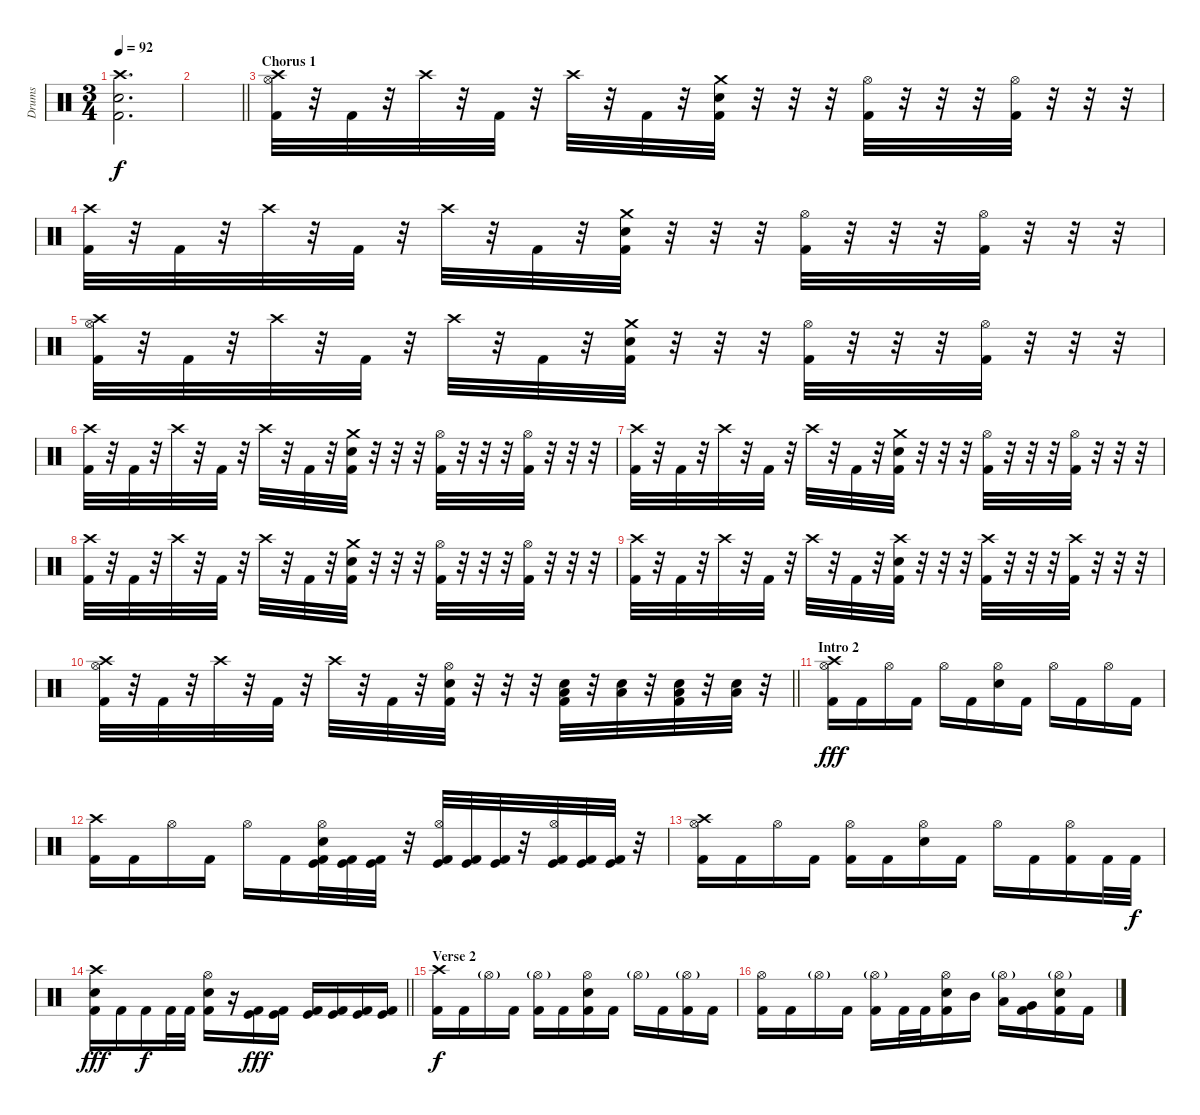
\track ("Drums" "Drums") {instrument percussion}
\staff {score}
\articulation defaults
\ts (3 4)
\tempo 92
\clef neutral
\ks c
("Crash high (hit)" "Electric Snare (hit)" "Kick (hit) 2").2{d dy f} |
\barLineRight lightlight
|
\section ("" "Chorus 1")
("Crash high (hit)" "Hi-Hat (open)" "Kick (hit) 2").32 r.32 "Kick (hit) 2".32 r.32 "Crash high (hit)".32 r.32 "Kick (hit) 2".32 r.32 "Crash high (hit)".32 r.32 "Kick (hit) 2".32 r.32 ("Crash medium (hit)" "Electric Snare (hit)" "Kick (hit) 2").32 r.32 r.32 r.32 ("Hi-Hat (open)" "Kick (hit) 2").32 r.32 r.32 r.32 ("Hi-Hat (open)" "Kick (hit) 2").32 r.32 r.32 r.32 |
("Crash high (hit)" "Kick (hit) 2").32 r.32 "Kick (hit) 2".32 r.32 "Crash high (hit)".32 r.32 "Kick (hit) 2".32 r.32 "Crash high (hit)".32 r.32 "Kick (hit) 2".32 r.32 ("Crash medium (hit)" "Electric Snare (hit)" "Kick (hit) 2").32 r.32 r.32 r.32 ("Hi-Hat (open)" "Kick (hit) 2").32 r.32 r.32 r.32 ("Hi-Hat (open)" "Kick (hit) 2").32 r.32 r.32 r.32 |
("Crash high (hit)" "Hi-Hat (open)" "Kick (hit) 2").32 r.32 "Kick (hit) 2".32 r.32 "Crash high (hit)".32 r.32 "Kick (hit) 2".32 r.32 "Crash high (hit)".32 r.32 "Kick (hit) 2".32 r.32 ("Crash medium (hit)" "Electric Snare (hit)" "Kick (hit) 2").32 r.32 r.32 r.32 ("Hi-Hat (open)" "Kick (hit) 2").32 r.32 r.32 r.32 ("Hi-Hat (open)" "Kick (hit) 2").32 r.32 r.32 r.32 |
("Crash high (hit)" "Kick (hit) 2").32 r.32 "Kick (hit) 2".32 r.32 "Crash high (hit)".32 r.32 "Kick (hit) 2".32 r.32 "Crash high (hit)".32 r.32 "Kick (hit) 2".32 r.32 ("Crash medium (hit)" "Electric Snare (hit)" "Kick (hit) 2").32 r.32 r.32 r.32 ("Hi-Hat (open)" "Kick (hit) 2").32 r.32 r.32 r.32 ("Hi-Hat (open)" "Kick (hit) 2").32 r.32 r.32 r.32 |
("Crash high (hit)" "Kick (hit) 2").32 r.32 "Kick (hit) 2".32 r.32 "Crash high (hit)".32 r.32 "Kick (hit) 2".32 r.32 "Crash high (hit)".32 r.32 "Kick (hit) 2".32 r.32 ("Crash medium (hit)" "Electric Snare (hit)" "Kick (hit) 2").32 r.32 r.32 r.32 ("Hi-Hat (open)" "Kick (hit) 2").32 r.32 r.32 r.32 ("Hi-Hat (open)" "Kick (hit) 2").32 r.32 r.32 r.32 |
("Crash high (hit)" "Kick (hit) 2").32 r.32 "Kick (hit) 2".32 r.32 "Crash high (hit)".32 r.32 "Kick (hit) 2".32 r.32 "Crash high (hit)".32 r.32 "Kick (hit) 2".32 r.32 ("Crash medium (hit)" "Electric Snare (hit)" "Kick (hit) 2").32 r.32 r.32 r.32 ("Hi-Hat (open)" "Kick (hit) 2").32 r.32 r.32 r.32 ("Hi-Hat (open)" "Kick (hit) 2").32 r.32 r.32 r.32 |
("Crash high (hit)" "Kick (hit) 2").32 r.32 "Kick (hit) 2".32 r.32 "Crash high (hit)".32 r.32 "Kick (hit) 2".32 r.32 "Crash high (hit)".32 r.32 "Kick (hit) 2".32 r.32 ("Crash high (hit)" "Electric Snare (hit)" "Kick (hit) 2").32 r.32 r.32 r.32 ("Crash high (hit)" "Kick (hit) 2").32 r.32 r.32 r.32 ("Crash high (hit)" "Kick (hit) 2").32 r.32 r.32 r.32 |
\barLineRight lightlight
("Crash high (hit)" "Hi-Hat (open)" "Kick (hit) 2").32 r.32 "Kick (hit) 2".32 r.32 "Crash high (hit)".32 r.32 "Kick (hit) 2".32 r.32 "Crash high (hit)".32 r.32 "Kick (hit) 2".32 r.32 ("Hi-Hat (open)" "Electric Snare (hit)" "Kick (hit) 2").32 r.32 r.32 r.32 ("Electric Snare (hit)" "Low Floor Tom (hit)" "Kick (hit) 2").32 r.32 ("Electric Snare (hit)" "Low Floor Tom (hit)").32 r.32 ("Electric Snare (hit)" "Low Floor Tom (hit)" "Kick (hit) 2").32 r.32 ("Electric Snare (hit)" "Low Floor Tom (hit)").32 r.32 |
\section ("" "Intro 2 ")
("Crash high (hit)" "Hi-Hat (open)" "Kick (hit) 2").16{dy fff} "Kick (hit) 2".16 "Hi-Hat (open)".16 "Kick (hit) 2".16 "Hi-Hat (open)".16 "Kick (hit) 2".16 ("Hi-Hat (open)" "Electric Snare (hit)").16 "Kick (hit) 2".16 "Hi-Hat (open)".16 "Kick (hit) 2".16 "Hi-Hat (open)".16 "Kick (hit) 2".16 |
("Crash high (hit)" "Kick (hit) 2").16 "Kick (hit) 2".16 "Hi-Hat (open)".16 "Kick (hit) 2".16 "Hi-Hat (open)".16 "Kick (hit) 2".16 ("Hi-Hat (open)" "Electric Snare (hit)" "Kick (hit)" "Kick (hit) 2").32 ("Kick (hit)" "Kick (hit) 2").32 ("Kick (hit)" "Kick (hit) 2").32 r.32 ("Hi-Hat (open)" "Kick (hit)" "Kick (hit) 2").32 ("Kick (hit)" "Kick (hit) 2").32 ("Kick (hit)" "Kick (hit) 2").32 r.32 ("Hi-Hat (open)" "Kick (hit)" "Kick (hit) 2").32 ("Kick (hit)" "Kick (hit) 2").32 ("Kick (hit)" "Kick (hit) 2").32 r.32 |
("Crash high (hit)" "Hi-Hat (open)" "Kick (hit) 2").16 "Kick (hit) 2".16 "Hi-Hat (open)".16 "Kick (hit) 2".16 ("Hi-Hat (open)" "Kick (hit) 2").16 "Kick (hit) 2".16 ("Hi-Hat (open)" "Electric Snare (hit)").16 "Kick (hit) 2".16 "Hi-Hat (open)".16 "Kick (hit) 2".16 ("Hi-Hat (open)" "Kick (hit) 2").16 "Kick (hit) 2".32 "Kick (hit) 2".32{dy f} |
\barLineRight lightlight
("Crash high (hit)" "Electric Snare (hit)" "Kick (hit) 2").16{dy fff} "Kick (hit) 2".16 "Kick (hit) 2".16{dy f} "Kick (hit) 2".32 "Kick (hit) 2".32 ("Hi-Hat (open)" "Electric Snare (hit)" "Kick (hit) 2").16 r.16 ("Kick (hit)" "Kick (hit) 2").16{dy fff} ("Kick (hit)" "Kick (hit) 2").16 ("Kick (hit)" "Kick (hit) 2").16 ("Kick (hit)" "Kick (hit) 2").16 ("Kick (hit)" "Kick (hit) 2").16 ("Kick (hit)" "Kick (hit) 2").16 |
\section ("" "Verse 2")
("Crash high (hit)" "Kick (hit) 2").16{dy f} "Kick (hit) 2".16 "Hi-Hat (open)"{g}.16 "Kick (hit) 2".16 ("Hi-Hat (open)"{g} "Kick (hit) 2").16 "Kick (hit) 2".16 ("Hi-Hat (open)" "Electric Snare (hit)" "Kick (hit) 2").16 "Kick (hit) 2".16 "Hi-Hat (open)"{g}.16 "Kick (hit) 2".16 ("Hi-Hat (open)"{g} "Kick (hit) 2").16 "Kick (hit) 2".16 |
("Hi-Hat (open)" "Kick (hit) 2").16 "Kick (hit) 2".16 "Hi-Hat (open)"{g}.16 "Kick (hit) 2".16 ("Hi-Hat (open)"{g} "Kick (hit) 2").16 "Kick (hit) 2".32 "Kick (hit) 2".32 ("Hi-Hat (open)" "Electric Snare (hit)" "Kick (hit) 2").16 "Mid Tom (hit)".16 ("Hi-Hat (open)"{g} "Low Tom (hit)").16 ("Very Low Tom (hit)" "Kick (hit) 2").16 ("Hi-Hat (open)"{g} "Electric Snare (hit)" "Kick (hit) 2").16 "Kick (hit) 2".16
